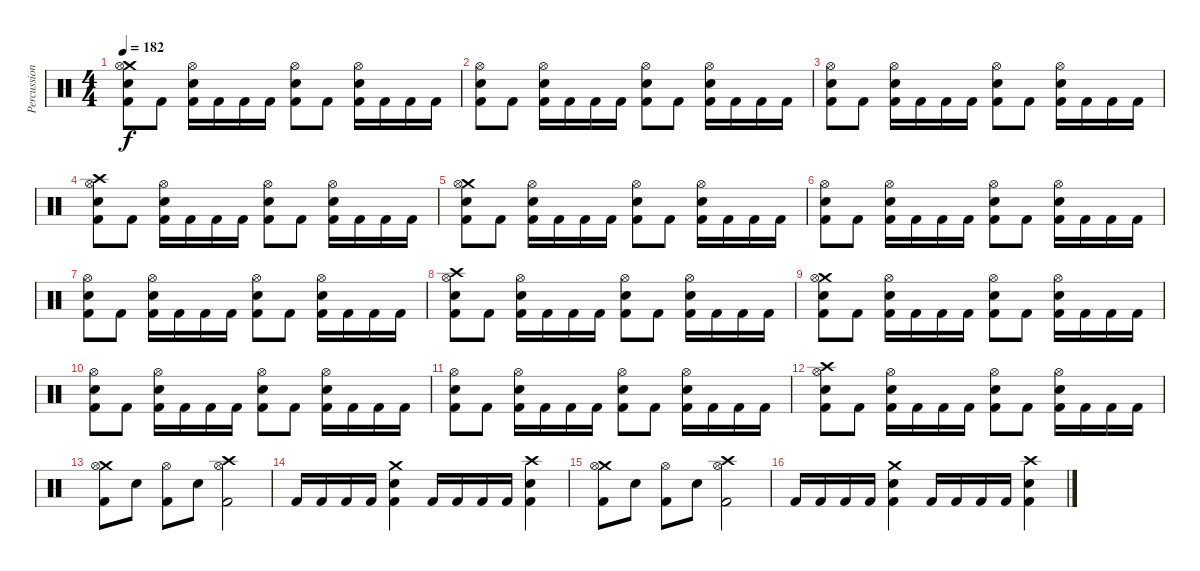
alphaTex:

\track ("Percussion" "Percussion") {instrument percussion}
\staff {score}
\articulation defaults
\ts (4 4)
\tempo 182
\clef neutral
\ks c
("Crash medium (hit)" "Hi-Hat (open)" "Electric Snare (hit)" "Kick (hit) 2").8{dy f} "Kick (hit) 2".8 ("Hi-Hat (open)" "Electric Snare (hit)" "Kick (hit) 2").16 "Kick (hit) 2".16 "Kick (hit) 2".16 "Kick (hit) 2".16 ("Hi-Hat (open)" "Electric Snare (hit)" "Kick (hit) 2").8 "Kick (hit) 2".8 ("Hi-Hat (open)" "Electric Snare (hit)" "Kick (hit) 2").16 "Kick (hit) 2".16 "Kick (hit) 2".16 "Kick (hit) 2".16 |
("Hi-Hat (open)" "Electric Snare (hit)" "Kick (hit) 2").8 "Kick (hit) 2".8 ("Hi-Hat (open)" "Electric Snare (hit)" "Kick (hit) 2").16 "Kick (hit) 2".16 "Kick (hit) 2".16 "Kick (hit) 2".16 ("Hi-Hat (open)" "Electric Snare (hit)" "Kick (hit) 2").8 "Kick (hit) 2".8 ("Hi-Hat (open)" "Electric Snare (hit)" "Kick (hit) 2").16 "Kick (hit) 2".16 "Kick (hit) 2".16 "Kick (hit) 2".16 |
("Hi-Hat (open)" "Electric Snare (hit)" "Kick (hit) 2").8 "Kick (hit) 2".8 ("Hi-Hat (open)" "Electric Snare (hit)" "Kick (hit) 2").16 "Kick (hit) 2".16 "Kick (hit) 2".16 "Kick (hit) 2".16 ("Hi-Hat (open)" "Electric Snare (hit)" "Kick (hit) 2").8 "Kick (hit) 2".8 ("Hi-Hat (open)" "Electric Snare (hit)" "Kick (hit) 2").16 "Kick (hit) 2".16 "Kick (hit) 2".16 "Kick (hit) 2".16 |
("Crash high (hit)" "Hi-Hat (open)" "Electric Snare (hit)" "Kick (hit) 2").8 "Kick (hit) 2".8 ("Hi-Hat (open)" "Electric Snare (hit)" "Kick (hit) 2").16 "Kick (hit) 2".16 "Kick (hit) 2".16 "Kick (hit) 2".16 ("Hi-Hat (open)" "Electric Snare (hit)" "Kick (hit) 2").8 "Kick (hit) 2".8 ("Hi-Hat (open)" "Electric Snare (hit)" "Kick (hit) 2").16 "Kick (hit) 2".16 "Kick (hit) 2".16 "Kick (hit) 2".16 |
("Crash medium (hit)" "Hi-Hat (open)" "Electric Snare (hit)" "Kick (hit) 2").8 "Kick (hit) 2".8 ("Hi-Hat (open)" "Electric Snare (hit)" "Kick (hit) 2").16 "Kick (hit) 2".16 "Kick (hit) 2".16 "Kick (hit) 2".16 ("Hi-Hat (open)" "Electric Snare (hit)" "Kick (hit) 2").8 "Kick (hit) 2".8 ("Hi-Hat (open)" "Electric Snare (hit)" "Kick (hit) 2").16 "Kick (hit) 2".16 "Kick (hit) 2".16 "Kick (hit) 2".16 |
("Hi-Hat (open)" "Electric Snare (hit)" "Kick (hit) 2").8 "Kick (hit) 2".8 ("Hi-Hat (open)" "Electric Snare (hit)" "Kick (hit) 2").16 "Kick (hit) 2".16 "Kick (hit) 2".16 "Kick (hit) 2".16 ("Hi-Hat (open)" "Electric Snare (hit)" "Kick (hit) 2").8 "Kick (hit) 2".8 ("Hi-Hat (open)" "Electric Snare (hit)" "Kick (hit) 2").16 "Kick (hit) 2".16 "Kick (hit) 2".16 "Kick (hit) 2".16 |
("Hi-Hat (open)" "Electric Snare (hit)" "Kick (hit) 2").8 "Kick (hit) 2".8 ("Hi-Hat (open)" "Electric Snare (hit)" "Kick (hit) 2").16 "Kick (hit) 2".16 "Kick (hit) 2".16 "Kick (hit) 2".16 ("Hi-Hat (open)" "Electric Snare (hit)" "Kick (hit) 2").8 "Kick (hit) 2".8 ("Hi-Hat (open)" "Electric Snare (hit)" "Kick (hit) 2").16 "Kick (hit) 2".16 "Kick (hit) 2".16 "Kick (hit) 2".16 |
("Crash high (hit)" "Hi-Hat (open)" "Electric Snare (hit)" "Kick (hit) 2").8 "Kick (hit) 2".8 ("Hi-Hat (open)" "Electric Snare (hit)" "Kick (hit) 2").16 "Kick (hit) 2".16 "Kick (hit) 2".16 "Kick (hit) 2".16 ("Hi-Hat (open)" "Electric Snare (hit)" "Kick (hit) 2").8 "Kick (hit) 2".8 ("Hi-Hat (open)" "Electric Snare (hit)" "Kick (hit) 2").16 "Kick (hit) 2".16 "Kick (hit) 2".16 "Kick (hit) 2".16 |
("Crash medium (hit)" "Hi-Hat (open)" "Electric Snare (hit)" "Kick (hit) 2").8 "Kick (hit) 2".8 ("Hi-Hat (open)" "Electric Snare (hit)" "Kick (hit) 2").16 "Kick (hit) 2".16 "Kick (hit) 2".16 "Kick (hit) 2".16 ("Hi-Hat (open)" "Electric Snare (hit)" "Kick (hit) 2").8 "Kick (hit) 2".8 ("Hi-Hat (open)" "Electric Snare (hit)" "Kick (hit) 2").16 "Kick (hit) 2".16 "Kick (hit) 2".16 "Kick (hit) 2".16 |
("Hi-Hat (open)" "Electric Snare (hit)" "Kick (hit) 2").8 "Kick (hit) 2".8 ("Hi-Hat (open)" "Electric Snare (hit)" "Kick (hit) 2").16 "Kick (hit) 2".16 "Kick (hit) 2".16 "Kick (hit) 2".16 ("Hi-Hat (open)" "Electric Snare (hit)" "Kick (hit) 2").8 "Kick (hit) 2".8 ("Hi-Hat (open)" "Electric Snare (hit)" "Kick (hit) 2").16 "Kick (hit) 2".16 "Kick (hit) 2".16 "Kick (hit) 2".16 |
("Hi-Hat (open)" "Electric Snare (hit)" "Kick (hit) 2").8 "Kick (hit) 2".8 ("Hi-Hat (open)" "Electric Snare (hit)" "Kick (hit) 2").16 "Kick (hit) 2".16 "Kick (hit) 2".16 "Kick (hit) 2".16 ("Hi-Hat (open)" "Electric Snare (hit)" "Kick (hit) 2").8 "Kick (hit) 2".8 ("Hi-Hat (open)" "Electric Snare (hit)" "Kick (hit) 2").16 "Kick (hit) 2".16 "Kick (hit) 2".16 "Kick (hit) 2".16 |
("Crash high (hit)" "Hi-Hat (open)" "Electric Snare (hit)" "Kick (hit) 2").8 "Kick (hit) 2".8 ("Hi-Hat (open)" "Electric Snare (hit)" "Kick (hit) 2").16 "Kick (hit) 2".16 "Kick (hit) 2".16 "Kick (hit) 2".16 ("Hi-Hat (open)" "Electric Snare (hit)" "Kick (hit) 2").8 "Kick (hit) 2".8 ("Hi-Hat (open)" "Electric Snare (hit)" "Kick (hit) 2").16 "Kick (hit) 2".16 "Kick (hit) 2".16 "Kick (hit) 2".16 |
("Crash medium (hit)" "Hi-Hat (open)" "Kick (hit) 2").8 "Electric Snare (hit)".8 ("Hi-Hat (open)" "Kick (hit) 2").8 "Electric Snare (hit)".8 ("Crash high (hit)" "Hi-Hat (open)" "Kick (hit) 2").2 |
"Kick (hit) 2".16 "Kick (hit) 2".16 "Kick (hit) 2".16 "Kick (hit) 2".16 ("Crash medium (hit)" "Electric Snare (hit)" "Kick (hit) 2").4 "Kick (hit) 2".16 "Kick (hit) 2".16 "Kick (hit) 2".16 "Kick (hit) 2".16 ("Crash high (hit)" "Electric Snare (hit)" "Kick (hit) 2").4 |
("Crash medium (hit)" "Hi-Hat (open)" "Kick (hit) 2").8 "Electric Snare (hit)".8 ("Hi-Hat (open)" "Kick (hit) 2").8 "Electric Snare (hit)".8 ("Crash high (hit)" "Hi-Hat (open)" "Kick (hit) 2").2 |
"Kick (hit) 2".16 "Kick (hit) 2".16 "Kick (hit) 2".16 "Kick (hit) 2".16 ("Crash medium (hit)" "Electric Snare (hit)" "Kick (hit) 2").4 "Kick (hit) 2".16 "Kick (hit) 2".16 "Kick (hit) 2".16 "Kick (hit) 2".16 ("Crash high (hit)" "Electric Snare (hit)" "Kick (hit) 2").4
